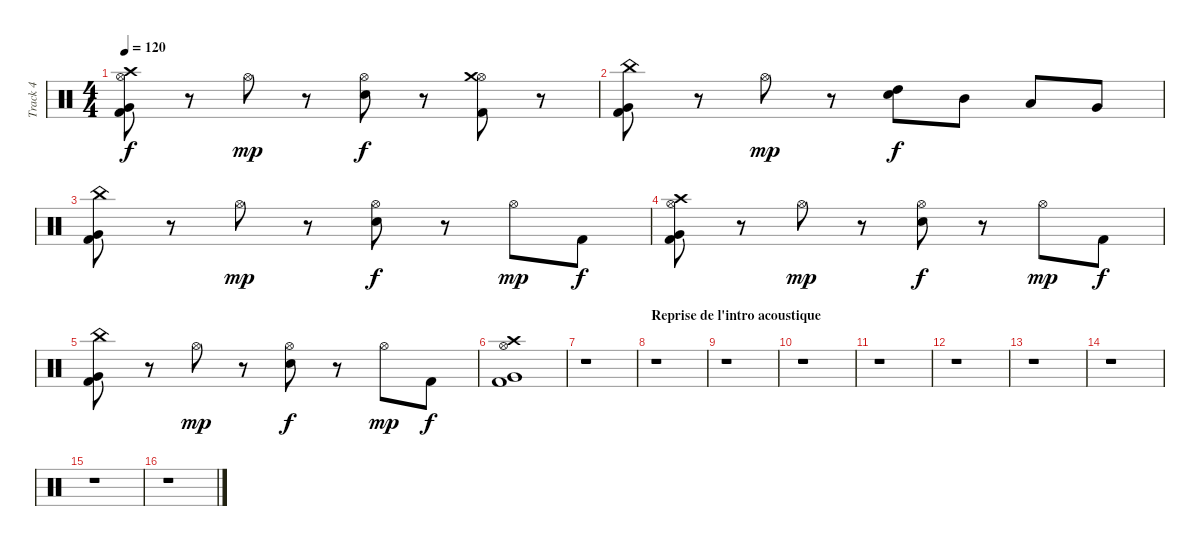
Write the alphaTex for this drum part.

\track ("Track 4" "Track 4") {instrument percussion}
\staff {score}
\articulation defaults
\ts (4 4)
\tempo 120
\clef neutral
\ks c
("Hi-Hat (open)" "Kick (hit) 2" "Very Low Tom (hit)" "Crash high (hit)").8{dy f} r.8 "Hi-Hat (open)".8{dy mp} r.8 ("Hi-Hat (open)" "Snare (hit) 2").8{dy f} r.8 ("Hi-Hat (open)" "Kick (hit) 2" "Crash medium (hit)").8 r.8 |
("China (hit)" "Kick (hit) 2" "Very Low Tom (hit)").8 r.8 "Hi-Hat (open)".8{dy mp} r.8 ("High Tom (hit)" "Snare (hit) 2").8{dy f} "Mid Tom (hit)".8 "Low Tom (hit)".8 "Very Low Tom (hit)".8 |
("China (hit)" "Kick (hit) 2" "Very Low Tom (hit)").8 r.8 "Hi-Hat (open)".8{dy mp} r.8 ("Hi-Hat (open)" "Snare (hit) 2").8{dy f} r.8 "Hi-Hat (open)".8{dy mp} "Kick (hit) 2".8{dy f} |
("Hi-Hat (open)" "Kick (hit) 2" "Very Low Tom (hit)" "Crash high (hit)").8 r.8 "Hi-Hat (open)".8{dy mp} r.8 ("Hi-Hat (open)" "Snare (hit) 2").8{dy f} r.8 "Hi-Hat (open)".8{dy mp} "Kick (hit) 2".8{dy f} |
("China (hit)" "Kick (hit) 2" "Very Low Tom (hit)").8 r.8 "Hi-Hat (open)".8{dy mp} r.8 ("Hi-Hat (open)" "Snare (hit) 2").8{dy f} r.8 "Hi-Hat (open)".8{dy mp} "Kick (hit) 2".8{dy f} |
("Hi-Hat (open)" "Kick (hit) 2" "Very Low Tom (hit)" "Crash high (hit)").1 |
r.1 |
\section ("" "Reprise de l'intro acoustique")
r.1 |
r.1 |
r.1 |
r.1 |
r.1 |
r.1 |
r.1 |
r.1 |
r.1
